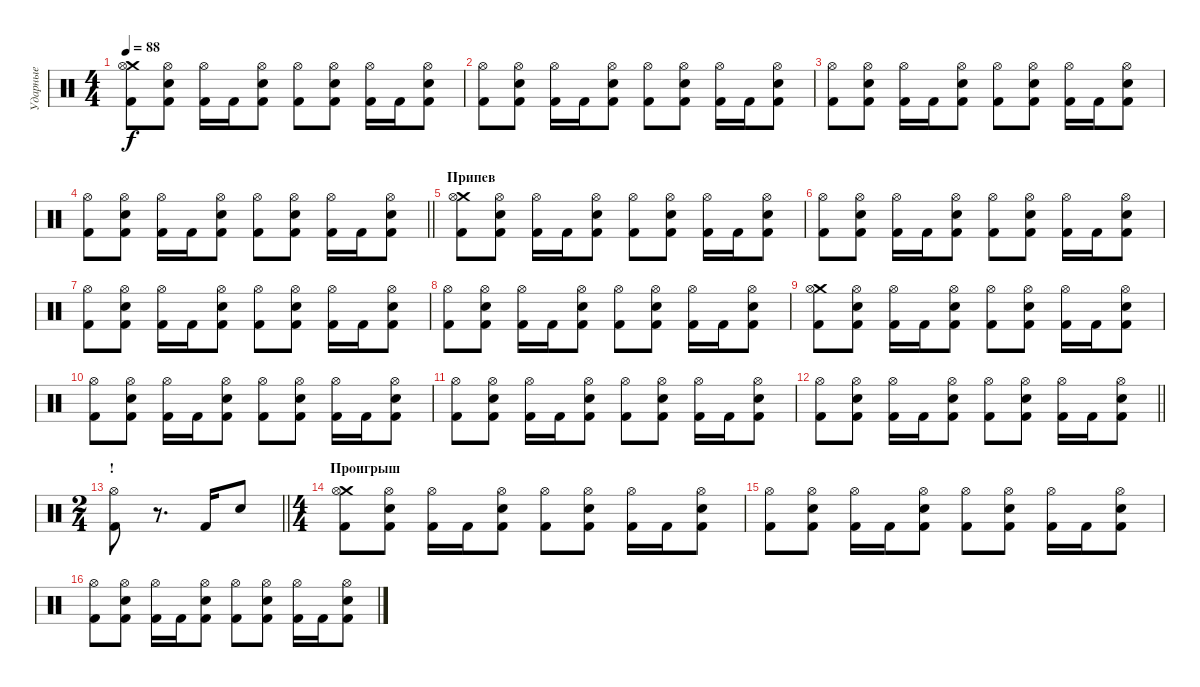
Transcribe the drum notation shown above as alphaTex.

\track ("Ударные" "Ударные") {instrument percussion}
\staff {score}
\articulation defaults
\ts (4 4)
\tempo 88
\clef neutral
\ks c
("Kick (hit) 2" "Crash medium (hit)" "Hi-Hat (open)").8{dy f} ("Snare (hit) 2" "Kick (hit) 2" "Hi-Hat (open)").8 ("Kick (hit) 2" "Hi-Hat (open)").16 "Kick (hit) 2".16 ("Snare (hit) 2" "Kick (hit) 2" "Hi-Hat (open)").8 ("Kick (hit) 2" "Hi-Hat (open)").8 ("Snare (hit) 2" "Kick (hit) 2" "Hi-Hat (open)").8 ("Kick (hit) 2" "Hi-Hat (open)").16 "Kick (hit) 2".16 ("Snare (hit) 2" "Kick (hit) 2" "Hi-Hat (open)").8 |
("Kick (hit) 2" "Hi-Hat (open)").8 ("Snare (hit) 2" "Kick (hit) 2" "Hi-Hat (open)").8 ("Kick (hit) 2" "Hi-Hat (open)").16 "Kick (hit) 2".16 ("Snare (hit) 2" "Kick (hit) 2" "Hi-Hat (open)").8 ("Kick (hit) 2" "Hi-Hat (open)").8 ("Snare (hit) 2" "Kick (hit) 2" "Hi-Hat (open)").8 ("Kick (hit) 2" "Hi-Hat (open)").16 "Kick (hit) 2".16 ("Snare (hit) 2" "Kick (hit) 2" "Hi-Hat (open)").8 |
("Kick (hit) 2" "Hi-Hat (open)").8 ("Snare (hit) 2" "Kick (hit) 2" "Hi-Hat (open)").8 ("Kick (hit) 2" "Hi-Hat (open)").16 "Kick (hit) 2".16 ("Snare (hit) 2" "Kick (hit) 2" "Hi-Hat (open)").8 ("Kick (hit) 2" "Hi-Hat (open)").8 ("Snare (hit) 2" "Kick (hit) 2" "Hi-Hat (open)").8 ("Kick (hit) 2" "Hi-Hat (open)").16 "Kick (hit) 2".16 ("Snare (hit) 2" "Kick (hit) 2" "Hi-Hat (open)").8 |
\barLineRight lightlight
("Kick (hit) 2" "Hi-Hat (open)").8 ("Snare (hit) 2" "Kick (hit) 2" "Hi-Hat (open)").8 ("Kick (hit) 2" "Hi-Hat (open)").16 "Kick (hit) 2".16 ("Snare (hit) 2" "Kick (hit) 2" "Hi-Hat (open)").8 ("Kick (hit) 2" "Hi-Hat (open)").8 ("Snare (hit) 2" "Kick (hit) 2" "Hi-Hat (open)").8 ("Kick (hit) 2" "Hi-Hat (open)").16 "Kick (hit) 2".16 ("Snare (hit) 2" "Kick (hit) 2" "Hi-Hat (open)").8 |
\section ("" "Припев")
("Kick (hit) 2" "Crash medium (hit)" "Hi-Hat (open)").8 ("Snare (hit) 2" "Kick (hit) 2" "Hi-Hat (open)").8 ("Kick (hit) 2" "Hi-Hat (open)").16 "Kick (hit) 2".16 ("Snare (hit) 2" "Kick (hit) 2" "Hi-Hat (open)").8 ("Kick (hit) 2" "Hi-Hat (open)").8 ("Snare (hit) 2" "Kick (hit) 2" "Hi-Hat (open)").8 ("Kick (hit) 2" "Hi-Hat (open)").16 "Kick (hit) 2".16 ("Snare (hit) 2" "Kick (hit) 2" "Hi-Hat (open)").8 |
("Kick (hit) 2" "Hi-Hat (open)").8 ("Snare (hit) 2" "Kick (hit) 2" "Hi-Hat (open)").8 ("Kick (hit) 2" "Hi-Hat (open)").16 "Kick (hit) 2".16 ("Snare (hit) 2" "Kick (hit) 2" "Hi-Hat (open)").8 ("Kick (hit) 2" "Hi-Hat (open)").8 ("Snare (hit) 2" "Kick (hit) 2" "Hi-Hat (open)").8 ("Kick (hit) 2" "Hi-Hat (open)").16 "Kick (hit) 2".16 ("Snare (hit) 2" "Kick (hit) 2" "Hi-Hat (open)").8 |
("Kick (hit) 2" "Hi-Hat (open)").8 ("Snare (hit) 2" "Kick (hit) 2" "Hi-Hat (open)").8 ("Kick (hit) 2" "Hi-Hat (open)").16 "Kick (hit) 2".16 ("Snare (hit) 2" "Kick (hit) 2" "Hi-Hat (open)").8 ("Kick (hit) 2" "Hi-Hat (open)").8 ("Snare (hit) 2" "Kick (hit) 2" "Hi-Hat (open)").8 ("Kick (hit) 2" "Hi-Hat (open)").16 "Kick (hit) 2".16 ("Snare (hit) 2" "Kick (hit) 2" "Hi-Hat (open)").8 |
("Kick (hit) 2" "Hi-Hat (open)").8 ("Snare (hit) 2" "Kick (hit) 2" "Hi-Hat (open)").8 ("Kick (hit) 2" "Hi-Hat (open)").16 "Kick (hit) 2".16 ("Snare (hit) 2" "Kick (hit) 2" "Hi-Hat (open)").8 ("Kick (hit) 2" "Hi-Hat (open)").8 ("Snare (hit) 2" "Kick (hit) 2" "Hi-Hat (open)").8 ("Kick (hit) 2" "Hi-Hat (open)").16 "Kick (hit) 2".16 ("Snare (hit) 2" "Kick (hit) 2" "Hi-Hat (open)").8 |
("Kick (hit) 2" "Crash medium (hit)" "Hi-Hat (open)").8 ("Snare (hit) 2" "Kick (hit) 2" "Hi-Hat (open)").8 ("Kick (hit) 2" "Hi-Hat (open)").16 "Kick (hit) 2".16 ("Snare (hit) 2" "Kick (hit) 2" "Hi-Hat (open)").8 ("Kick (hit) 2" "Hi-Hat (open)").8 ("Snare (hit) 2" "Kick (hit) 2" "Hi-Hat (open)").8 ("Kick (hit) 2" "Hi-Hat (open)").16 "Kick (hit) 2".16 ("Snare (hit) 2" "Kick (hit) 2" "Hi-Hat (open)").8 |
("Kick (hit) 2" "Hi-Hat (open)").8 ("Snare (hit) 2" "Kick (hit) 2" "Hi-Hat (open)").8 ("Kick (hit) 2" "Hi-Hat (open)").16 "Kick (hit) 2".16 ("Snare (hit) 2" "Kick (hit) 2" "Hi-Hat (open)").8 ("Kick (hit) 2" "Hi-Hat (open)").8 ("Snare (hit) 2" "Kick (hit) 2" "Hi-Hat (open)").8 ("Kick (hit) 2" "Hi-Hat (open)").16 "Kick (hit) 2".16 ("Snare (hit) 2" "Kick (hit) 2" "Hi-Hat (open)").8 |
("Kick (hit) 2" "Hi-Hat (open)").8 ("Snare (hit) 2" "Kick (hit) 2" "Hi-Hat (open)").8 ("Kick (hit) 2" "Hi-Hat (open)").16 "Kick (hit) 2".16 ("Snare (hit) 2" "Kick (hit) 2" "Hi-Hat (open)").8 ("Kick (hit) 2" "Hi-Hat (open)").8 ("Snare (hit) 2" "Kick (hit) 2" "Hi-Hat (open)").8 ("Kick (hit) 2" "Hi-Hat (open)").16 "Kick (hit) 2".16 ("Snare (hit) 2" "Kick (hit) 2" "Hi-Hat (open)").8 |
\barLineRight lightlight
("Kick (hit) 2" "Hi-Hat (open)").8 ("Snare (hit) 2" "Kick (hit) 2" "Hi-Hat (open)").8 ("Kick (hit) 2" "Hi-Hat (open)").16 "Kick (hit) 2".16 ("Snare (hit) 2" "Kick (hit) 2" "Hi-Hat (open)").8 ("Kick (hit) 2" "Hi-Hat (open)").8 ("Snare (hit) 2" "Kick (hit) 2" "Hi-Hat (open)").8 ("Kick (hit) 2" "Hi-Hat (open)").16 "Kick (hit) 2".16 ("Snare (hit) 2" "Kick (hit) 2" "Hi-Hat (open)").8 |
\ts (2 4)
\section ("" "!")
\barLineRight lightlight
("Kick (hit) 2" "Hi-Hat (open)").8 r.8{d} "Kick (hit) 2".16 "Snare (hit) 2".8 |
\ts (4 4)
\section ("" "Проигрыш")
("Kick (hit) 2" "Crash medium (hit)" "Hi-Hat (open)").8 ("Snare (hit) 2" "Kick (hit) 2" "Hi-Hat (open)").8 ("Kick (hit) 2" "Hi-Hat (open)").16 "Kick (hit) 2".16 ("Snare (hit) 2" "Kick (hit) 2" "Hi-Hat (open)").8 ("Kick (hit) 2" "Hi-Hat (open)").8 ("Snare (hit) 2" "Kick (hit) 2" "Hi-Hat (open)").8 ("Kick (hit) 2" "Hi-Hat (open)").16 "Kick (hit) 2".16 ("Snare (hit) 2" "Kick (hit) 2" "Hi-Hat (open)").8 |
("Kick (hit) 2" "Hi-Hat (open)").8 ("Snare (hit) 2" "Kick (hit) 2" "Hi-Hat (open)").8 ("Kick (hit) 2" "Hi-Hat (open)").16 "Kick (hit) 2".16 ("Snare (hit) 2" "Kick (hit) 2" "Hi-Hat (open)").8 ("Kick (hit) 2" "Hi-Hat (open)").8 ("Snare (hit) 2" "Kick (hit) 2" "Hi-Hat (open)").8 ("Kick (hit) 2" "Hi-Hat (open)").16 "Kick (hit) 2".16 ("Snare (hit) 2" "Kick (hit) 2" "Hi-Hat (open)").8 |
("Kick (hit) 2" "Hi-Hat (open)").8 ("Snare (hit) 2" "Kick (hit) 2" "Hi-Hat (open)").8 ("Kick (hit) 2" "Hi-Hat (open)").16 "Kick (hit) 2".16 ("Snare (hit) 2" "Kick (hit) 2" "Hi-Hat (open)").8 ("Kick (hit) 2" "Hi-Hat (open)").8 ("Snare (hit) 2" "Kick (hit) 2" "Hi-Hat (open)").8 ("Kick (hit) 2" "Hi-Hat (open)").16 "Kick (hit) 2".16 ("Snare (hit) 2" "Kick (hit) 2" "Hi-Hat (open)").8
